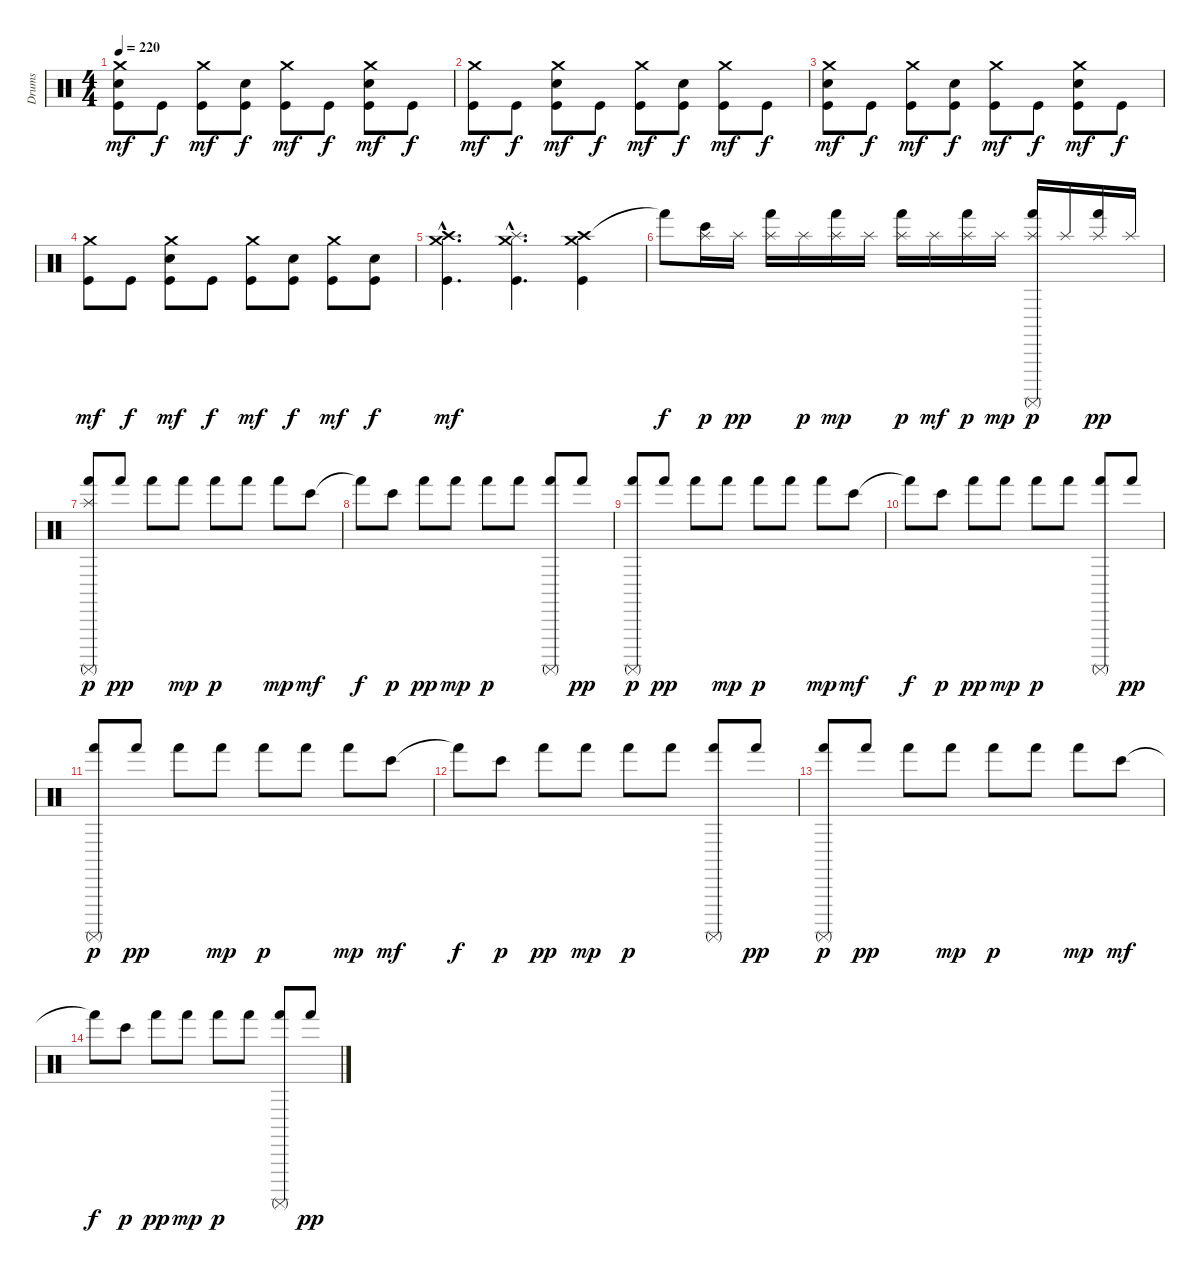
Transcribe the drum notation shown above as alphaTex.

\track ("Drums" "Drums") {instrument percussion}
\staff {score}
\articulation defaults
\ts (4 4)
\tempo 220
\clef neutral
\ks c
("Crash medium (hit)" "Electric Snare (hit)" "Kick (hit)").8{dy mf} "Kick (hit)".8{dy f} ("Crash medium (hit)" "Kick (hit)").8{dy mf} ("Electric Snare (hit)" "Kick (hit)").8{dy f} ("Crash medium (hit)" "Kick (hit)").8{dy mf} "Kick (hit)".8{dy f} ("Crash medium (hit)" "Electric Snare (hit)" "Kick (hit)").8{dy mf} "Kick (hit)".8{dy f} |
("Crash medium (hit)" "Kick (hit)").8{dy mf} "Kick (hit)".8{dy f} ("Crash medium (hit)" "Electric Snare (hit)" "Kick (hit)").8{dy mf} "Kick (hit)".8{dy f} ("Crash medium (hit)" "Kick (hit)").8{dy mf} ("Electric Snare (hit)" "Kick (hit)").8{dy f} ("Crash medium (hit)" "Kick (hit)").8{dy mf} "Kick (hit)".8{dy f} |
("Crash medium (hit)" "Electric Snare (hit)" "Kick (hit)").8{dy mf} "Kick (hit)".8{dy f} ("Crash medium (hit)" "Kick (hit)").8{dy mf} ("Electric Snare (hit)" "Kick (hit)").8{dy f} ("Crash medium (hit)" "Kick (hit)").8{dy mf} "Kick (hit)".8{dy f} ("Crash medium (hit)" "Electric Snare (hit)" "Kick (hit)").8{dy mf} "Kick (hit)".8{dy f} |
("Crash medium (hit)" "Kick (hit)").8{dy mf} "Kick (hit)".8{dy f} ("Crash medium (hit)" "Electric Snare (hit)" "Kick (hit)").8{dy mf} "Kick (hit)".8{dy f} ("Crash medium (hit)" "Kick (hit)").8{dy mf} ("Electric Snare (hit)" "Kick (hit)").8{dy f} ("Crash medium (hit)" "Kick (hit)").8{dy mf} ("Electric Snare (hit)" "Kick (hit)").8{dy f} |
("Crash high (hit)"{hac} "Crash medium (hit)"{hac} "Kick (hit)"{hac}).4{d dy mf} ("Splash (hit)"{hac} "Crash medium (hit)"{hac} "Kick (hit)"{hac}).4{d} ("Crash high (hit)" "Crash medium (hit)" "Kick (hit)").4 |
"Hand (hit)"{t}.8{dy f} ("Splash (hit)" "Bongo High (hit)").16{dy p} "Splash (hit)".16{dy pp} ("Splash (hit)" "Hand (hit)").16 "Splash (hit)".16{dy p} ("Splash (hit)" "Hand (hit)").16{dy mp} "Splash (hit)".16 ("Splash (hit)" "Hand (hit)").16{dy p} "Splash (hit)".16{dy mf} ("Splash (hit)" "Hand (hit)").16{dy p} "Splash (hit)".16{dy mp} ("Splash (hit)" "Hand (hit)" "Surdo (mute)").16{dy p} "Splash (hit)".16 ("Splash (hit)" "Hand (hit)").16{dy pp} "Splash (hit)".16 |
("Splash (hit)" "Hand (hit)" "Surdo (mute)").8{dy p} "Hand (hit)".8{dy pp} "Hand (hit)".8 "Hand (hit)".8{dy mp} "Hand (hit)".8{dy p} "Hand (hit)".8 "Hand (hit)".8{dy mp} "Bongo High (hit)".8{dy mf} |
"Hand (hit)"{t}.8{dy f} "Bongo High (hit)".8{dy p} "Hand (hit)".8{dy pp} "Hand (hit)".8{dy mp} "Hand (hit)".8{dy p} "Hand (hit)".8 ("Hand (hit)" "Surdo (mute)").8 "Hand (hit)".8{dy pp} |
("Hand (hit)" "Surdo (mute)").8{dy p} "Hand (hit)".8{dy pp} "Hand (hit)".8 "Hand (hit)".8{dy mp} "Hand (hit)".8{dy p} "Hand (hit)".8 "Hand (hit)".8{dy mp} "Bongo High (hit)".8{dy mf} |
"Hand (hit)"{t}.8{dy f} "Bongo High (hit)".8{dy p volume 3} "Hand (hit)".8{dy pp} "Hand (hit)".8{dy mp} "Hand (hit)".8{dy p} "Hand (hit)".8 ("Hand (hit)" "Surdo (mute)").8 "Hand (hit)".8{dy pp} |
("Hand (hit)" "Surdo (mute)").8{dy p} "Hand (hit)".8{dy pp} "Hand (hit)".8 "Hand (hit)".8{dy mp} "Hand (hit)".8{dy p} "Hand (hit)".8 "Hand (hit)".8{dy mp} "Bongo High (hit)".8{dy mf} |
"Hand (hit)"{t}.8{dy f} "Bongo High (hit)".8{dy p} "Hand (hit)".8{dy pp} "Hand (hit)".8{dy mp} "Hand (hit)".8{dy p} "Hand (hit)".8 ("Hand (hit)" "Surdo (mute)").8 "Hand (hit)".8{dy pp} |
("Hand (hit)" "Surdo (mute)").8{dy p} "Hand (hit)".8{dy pp} "Hand (hit)".8 "Hand (hit)".8{dy mp} "Hand (hit)".8{dy p} "Hand (hit)".8 "Hand (hit)".8{dy mp} "Bongo High (hit)".8{dy mf} |
"Hand (hit)"{t}.8{dy f} "Bongo High (hit)".8{dy p} "Hand (hit)".8{dy pp} "Hand (hit)".8{dy mp} "Hand (hit)".8{dy p} "Hand (hit)".8 ("Hand (hit)" "Surdo (mute)").8 "Hand (hit)".8{dy pp}
